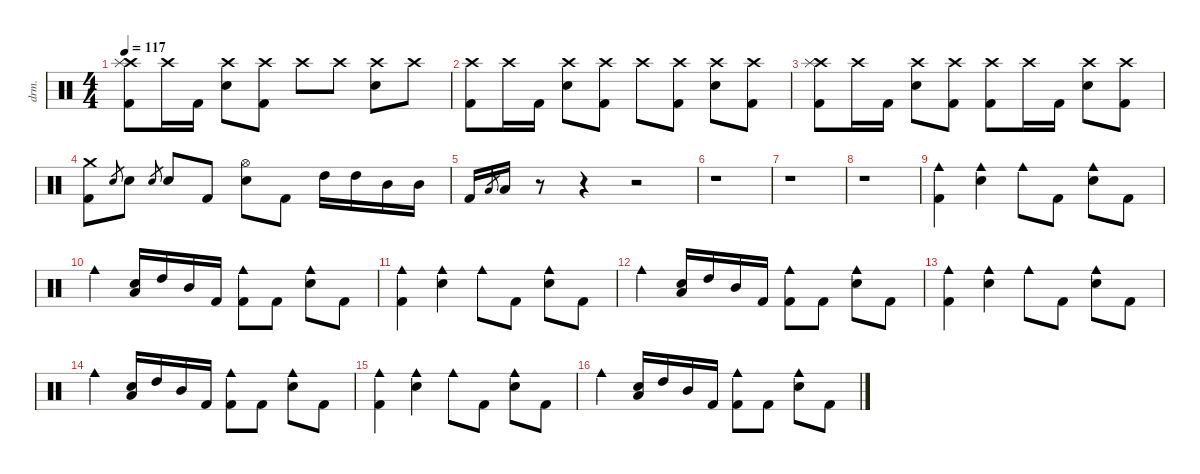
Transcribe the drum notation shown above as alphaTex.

\defaultSystemsLayout 4
\hideDynamics
\bracketExtendMode nobrackets
\track ("Drums" "drm.") {instrument percussion}
\staff {score}
\articulation defaults
\ts (4 4)
\tempo 117
\clef neutral
\ks c
("Kick (hit) 2" "Crash high (hit)" "Splash (hit)").8{dy mf beam Down} "Crash high (hit)".16{beam Down} "Kick (hit) 2".16{beam Down} ("Snare (hit) 2" "Crash high (hit)").8{beam Down} ("Kick (hit) 2" "Crash high (hit)").8{beam Down} "Crash high (hit)".8{beam Down} "Crash high (hit)".8{beam Down} ("Snare (hit) 2" "Crash high (hit)").8{beam Down} "Crash high (hit)".8{beam Down} |
("Kick (hit) 2" "Crash high (hit)").8{beam Down} "Crash high (hit)".16{beam Down} "Kick (hit) 2".16{beam Down} ("Snare (hit) 2" "Crash high (hit)").8{beam Down} ("Kick (hit) 2" "Crash high (hit)").8{beam Down} "Crash high (hit)".8{beam Down} ("Kick (hit) 2" "Crash high (hit)").8{beam Down} ("Snare (hit) 2" "Crash high (hit)").8{beam Down} ("Kick (hit) 2" "Crash high (hit)").8{beam Down} |
("Kick (hit) 2" "Crash high (hit)" "Splash (hit)").8{beam Down} "Crash high (hit)".16{beam Down} "Kick (hit) 2".16{beam Down} ("Snare (hit) 2" "Crash high (hit)").8{beam Down} ("Kick (hit) 2" "Crash high (hit)").8{beam Down} ("Kick (hit) 2" "Crash high (hit)").8{beam Down} "Crash high (hit)".16{beam Down} "Kick (hit) 2".16{beam Down} ("Snare (hit) 2" "Crash high (hit)").8{beam Down} ("Kick (hit) 2" "Crash high (hit)").8{beam Down} |
("Kick (hit) 2" "Crash medium (hit)").8{beam Down} "Snare (hit) 2".8{gr beam Up} "Snare (hit) 2".8{beam Down} "Snare (hit) 2".8{gr beam Up} "Snare (hit) 2".8{beam Up} "Kick (hit) 2".8{beam Up} ("Hi-Hat (open)" "Snare (hit) 2").8{beam Down} "Kick (hit) 2".8{beam Down} "High Tom (hit)".16{beam Down} "High Tom (hit)".16{beam Down} "Mid Tom (hit)".16{beam Down} "Mid Tom (hit)".16{beam Down} |
"Kick (hit) 2".16{beam Up} "Low Tom (hit)".8{gr beam Up} "Low Tom (hit)".16{beam Up} r.8{beam Down} r.4{beam Down} r.2{beam Down} |
r.1{beam Down} |
r.1{beam Down} |
r.1{beam Down} |
("Cowbell medium (hit)" "Kick (hit) 2").4{beam Down} ("Cowbell medium (hit)" "Snare (hit) 2").4{beam Down} "Cowbell medium (hit)".8{beam Down} "Kick (hit) 2".8{beam Down} ("Cowbell medium (hit)" "Snare (hit) 2").8{beam Down} "Kick (hit) 2".8{beam Down} |
"Cowbell medium (hit)".4{beam Down} ("Snare (hit) 2" "Low Tom (hit)").16{beam Up} "High Tom (hit)".16{beam Up} "Mid Tom (hit)".16{beam Up} "Kick (hit) 2".16{beam Up} ("Cowbell medium (hit)" "Kick (hit) 2").8{beam Down} "Kick (hit) 2".8{beam Down} ("Cowbell medium (hit)" "Snare (hit) 2").8{beam Down} "Kick (hit) 2".8{beam Down} |
("Cowbell medium (hit)" "Kick (hit) 2").4{beam Down} ("Cowbell medium (hit)" "Snare (hit) 2").4{beam Down} "Cowbell medium (hit)".8{beam Down} "Kick (hit) 2".8{beam Down} ("Cowbell medium (hit)" "Snare (hit) 2").8{beam Down} "Kick (hit) 2".8{beam Down} |
"Cowbell medium (hit)".4{beam Down} ("Snare (hit) 2" "Low Tom (hit)").16{beam Up} "High Tom (hit)".16{beam Up} "Mid Tom (hit)".16{beam Up} "Kick (hit) 2".16{beam Up} ("Cowbell medium (hit)" "Kick (hit) 2").8{beam Down} "Kick (hit) 2".8{beam Down} ("Cowbell medium (hit)" "Snare (hit) 2").8{beam Down} "Kick (hit) 2".8{beam Down} |
("Cowbell medium (hit)" "Kick (hit) 2").4{beam Down} ("Cowbell medium (hit)" "Snare (hit) 2").4{beam Down} "Cowbell medium (hit)".8{beam Down} "Kick (hit) 2".8{beam Down} ("Cowbell medium (hit)" "Snare (hit) 2").8{beam Down} "Kick (hit) 2".8{beam Down} |
"Cowbell medium (hit)".4{beam Down} ("Snare (hit) 2" "Low Tom (hit)").16{beam Up} "High Tom (hit)".16{beam Up} "Mid Tom (hit)".16{beam Up} "Kick (hit) 2".16{beam Up} ("Cowbell medium (hit)" "Kick (hit) 2").8{beam Down} "Kick (hit) 2".8{beam Down} ("Cowbell medium (hit)" "Snare (hit) 2").8{beam Down} "Kick (hit) 2".8{beam Down} |
("Cowbell medium (hit)" "Kick (hit) 2").4{beam Down} ("Cowbell medium (hit)" "Snare (hit) 2").4{beam Down} "Cowbell medium (hit)".8{beam Down} "Kick (hit) 2".8{beam Down} ("Cowbell medium (hit)" "Snare (hit) 2").8{beam Down} "Kick (hit) 2".8{beam Down} |
"Cowbell medium (hit)".4{beam Down} ("Snare (hit) 2" "Low Tom (hit)").16{beam Up} "High Tom (hit)".16{beam Up} "Mid Tom (hit)".16{beam Up} "Kick (hit) 2".16{beam Up} ("Cowbell medium (hit)" "Kick (hit) 2").8{beam Down} "Kick (hit) 2".8{beam Down} ("Cowbell medium (hit)" "Snare (hit) 2").8{beam Down} "Kick (hit) 2".8{beam Down}
